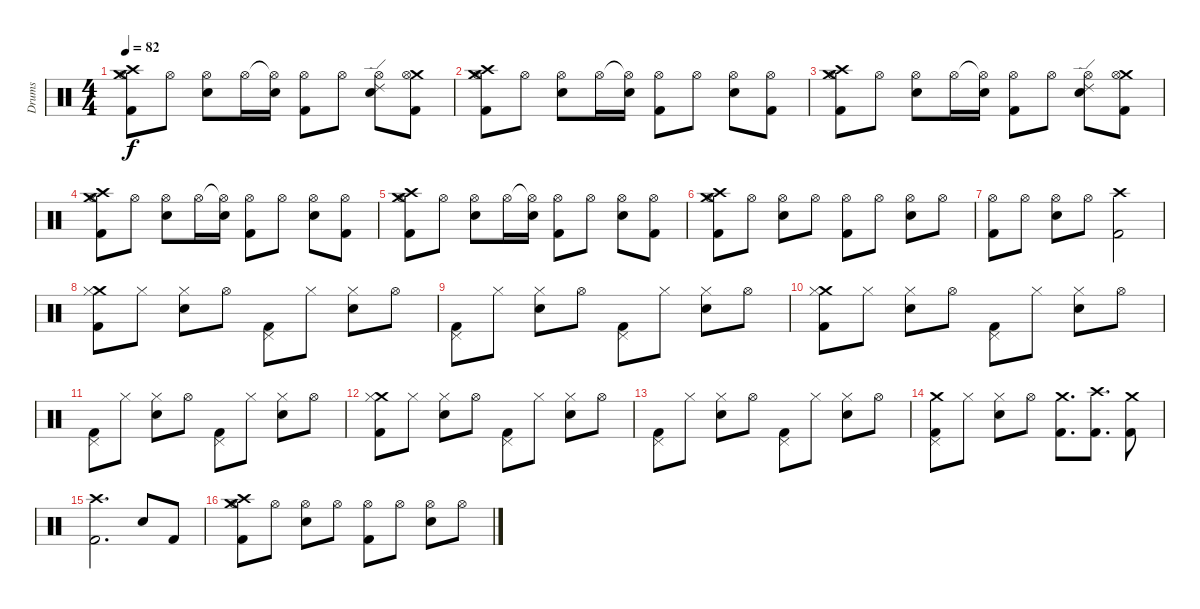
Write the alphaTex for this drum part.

\track ("Drums" "Drums") {instrument percussion}
\staff {score}
\articulation defaults
\ts (4 4)
\tempo 82
\clef neutral
\ks c
("Crash medium (hit)" "Crash high (hit)" "Hi-Hat (open)" "Kick (hit) 2").8{dy f} "Hi-Hat (open)".8 ("Hi-Hat (open)" "Snare (hit) 2").8 "Hi-Hat (open)".16 ("Hi-Hat (open)"{t} "Snare (hit) 2").16 ("Hi-Hat (open)" "Kick (hit) 2").8 "Hi-Hat (open)".8 ("Ride (edge) 2" "Hi-Hat (open)" "Snare (hit) 2").8 ("Crash medium (hit)" "Hi-Hat (open)" "Kick (hit) 2").8 |
("Crash medium (hit)" "Crash high (hit)" "Hi-Hat (open)" "Kick (hit) 2").8 "Hi-Hat (open)".8 ("Hi-Hat (open)" "Snare (hit) 2").8 "Hi-Hat (open)".16 ("Hi-Hat (open)"{t} "Snare (hit) 2").16 ("Hi-Hat (open)" "Kick (hit) 2").8 "Hi-Hat (open)".8 ("Hi-Hat (open)" "Snare (hit) 2").8 ("Hi-Hat (open)" "Kick (hit) 2").8 |
("Crash medium (hit)" "Crash high (hit)" "Hi-Hat (open)" "Kick (hit) 2").8 "Hi-Hat (open)".8 ("Hi-Hat (open)" "Snare (hit) 2").8 "Hi-Hat (open)".16 ("Hi-Hat (open)"{t} "Snare (hit) 2").16 ("Hi-Hat (open)" "Kick (hit) 2").8 "Hi-Hat (open)".8 ("Ride (edge) 2" "Hi-Hat (open)" "Snare (hit) 2").8 ("Crash medium (hit)" "Hi-Hat (open)" "Kick (hit) 2").8 |
("Crash medium (hit)" "Crash high (hit)" "Hi-Hat (open)" "Kick (hit) 2").8 "Hi-Hat (open)".8 ("Hi-Hat (open)" "Snare (hit) 2").8 "Hi-Hat (open)".16 ("Hi-Hat (open)"{t} "Snare (hit) 2").16 ("Hi-Hat (open)" "Kick (hit) 2").8 "Hi-Hat (open)".8 ("Hi-Hat (open)" "Snare (hit) 2").8 ("Hi-Hat (open)" "Kick (hit) 2").8 |
("Crash medium (hit)" "Crash high (hit)" "Hi-Hat (open)" "Kick (hit) 2").8 "Hi-Hat (open)".8 ("Hi-Hat (open)" "Snare (hit) 2").8 "Hi-Hat (open)".16 ("Hi-Hat (open)"{t} "Snare (hit) 2").16 ("Hi-Hat (open)" "Kick (hit) 2").8 "Hi-Hat (open)".8 ("Hi-Hat (open)" "Snare (hit) 2").8 ("Hi-Hat (open)" "Kick (hit) 2").8 |
("Crash medium (hit)" "Crash high (hit)" "Hi-Hat (open)" "Kick (hit) 2").8 "Hi-Hat (open)".8 ("Hi-Hat (open)" "Snare (hit) 2").8 "Hi-Hat (open)".8 ("Hi-Hat (open)" "Kick (hit) 2").8 "Hi-Hat (open)".8 ("Hi-Hat (open)" "Snare (hit) 2").8 "Hi-Hat (open)".8 |
("Hi-Hat (open)" "Kick (hit) 2").8 "Hi-Hat (open)".8 ("Hi-Hat (open)" "Snare (hit) 2").8 "Hi-Hat (open)".8 ("Kick (hit) 2" "Crash high (hit)").2 |
("Crash medium (hit)" "Kick (hit) 2" "Hi-Hat (closed)").8 "Hi-Hat (closed)".8 ("Snare (hit) 2" "Hi-Hat (closed)").8 "Hi-Hat (open)".8 ("Pedal Hi-Hat (hit)" "Kick (hit) 2").8 "Hi-Hat (closed)".8 ("Snare (hit) 2" "Hi-Hat (closed)").8 "Hi-Hat (open)".8 |
("Pedal Hi-Hat (hit)" "Kick (hit) 2").8 "Hi-Hat (closed)".8 ("Snare (hit) 2" "Hi-Hat (closed)").8 "Hi-Hat (open)".8 ("Pedal Hi-Hat (hit)" "Kick (hit) 2").8 "Hi-Hat (closed)".8 ("Snare (hit) 2" "Hi-Hat (closed)").8 "Hi-Hat (open)".8 |
("Crash medium (hit)" "Kick (hit) 2" "Hi-Hat (closed)").8 "Hi-Hat (closed)".8 ("Snare (hit) 2" "Hi-Hat (closed)").8 "Hi-Hat (open)".8 ("Pedal Hi-Hat (hit)" "Kick (hit) 2").8 "Hi-Hat (closed)".8 ("Snare (hit) 2" "Hi-Hat (closed)").8 "Hi-Hat (open)".8 |
("Pedal Hi-Hat (hit)" "Kick (hit) 2").8 "Hi-Hat (closed)".8 ("Snare (hit) 2" "Hi-Hat (closed)").8 "Hi-Hat (open)".8 ("Pedal Hi-Hat (hit)" "Kick (hit) 2").8 "Hi-Hat (closed)".8 ("Snare (hit) 2" "Hi-Hat (closed)").8 "Hi-Hat (open)".8 |
("Crash medium (hit)" "Kick (hit) 2" "Hi-Hat (closed)").8 "Hi-Hat (closed)".8 ("Snare (hit) 2" "Hi-Hat (closed)").8 "Hi-Hat (open)".8 ("Pedal Hi-Hat (hit)" "Kick (hit) 2").8 "Hi-Hat (closed)".8 ("Snare (hit) 2" "Hi-Hat (closed)").8 "Hi-Hat (open)".8 |
("Pedal Hi-Hat (hit)" "Kick (hit) 2").8 "Hi-Hat (closed)".8 ("Snare (hit) 2" "Hi-Hat (closed)").8 "Hi-Hat (open)".8 ("Pedal Hi-Hat (hit)" "Kick (hit) 2").8 "Hi-Hat (closed)".8 ("Snare (hit) 2" "Hi-Hat (closed)").8 "Hi-Hat (open)".8 |
("Crash medium (hit)" "Pedal Hi-Hat (hit)" "Kick (hit) 2").8 "Hi-Hat (closed)".8 ("Snare (hit) 2" "Hi-Hat (closed)").8 "Hi-Hat (open)".8 ("Crash medium (hit)" "Kick (hit) 2").8{d} ("Crash high (hit)" "Kick (hit) 2").8{d} ("Crash medium (hit)" "Kick (hit) 2").8 |
("Crash high (hit)" "Kick (hit) 2").2{d} "Snare (hit) 2".8 "Kick (hit) 2".8 |
("Crash medium (hit)" "Crash high (hit)" "Hi-Hat (open)" "Kick (hit) 2").8 "Hi-Hat (open)".8 ("Hi-Hat (open)" "Snare (hit) 2").8 "Hi-Hat (open)".8 ("Hi-Hat (open)" "Kick (hit) 2").8 "Hi-Hat (open)".8 ("Hi-Hat (open)" "Snare (hit) 2").8 "Hi-Hat (open)".8
